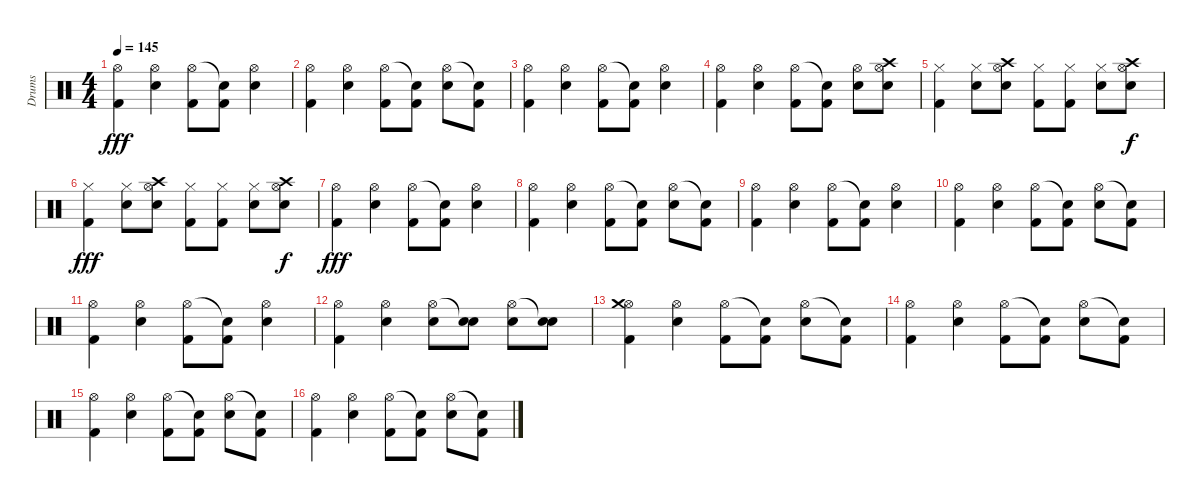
\track ("Drums" "Drums") {instrument percussion}
\staff {score}
\articulation defaults
\ts (4 4)
\tempo 145
\clef neutral
\ks c
("Hi-Hat (open)" "Kick (hit) 2").4{dy fff} ("Hi-Hat (open)" "Electric Snare (hit)").4 ("Hi-Hat (open)" "Kick (hit) 2").8 ("Snare (hit)"{t} "Kick (hit) 2").8 ("Hi-Hat (open)" "Electric Snare (hit)").4 |
("Hi-Hat (open)" "Kick (hit) 2").4 ("Hi-Hat (open)" "Electric Snare (hit)").4 ("Hi-Hat (open)" "Kick (hit) 2").8 ("Snare (hit)"{t} "Kick (hit) 2").8 ("Hi-Hat (open)" "Electric Snare (hit)").8 ("Snare (hit)"{t} "Kick (hit) 2").8 |
("Hi-Hat (open)" "Kick (hit) 2").4 ("Hi-Hat (open)" "Electric Snare (hit)").4 ("Hi-Hat (open)" "Kick (hit) 2").8 ("Snare (hit)"{t} "Kick (hit) 2").8 ("Hi-Hat (open)" "Electric Snare (hit)").4 |
("Hi-Hat (open)" "Kick (hit) 2").4 ("Hi-Hat (open)" "Electric Snare (hit)").4 ("Hi-Hat (open)" "Kick (hit) 2").8 ("Snare (hit)"{t} "Kick (hit) 2").8 ("Hi-Hat (open)" "Electric Snare (hit)").8 ("Hi-Hat (open)" "Electric Snare (hit)" "Crash high (hit)").8 |
("Hi-Hat (closed)" "Kick (hit) 2").4 ("Hi-Hat (closed)" "Electric Snare (hit)").8 ("Hi-Hat (open)" "Electric Snare (hit)" "Crash high (hit)").8 ("Hi-Hat (closed)" "Kick (hit) 2").8 ("Hi-Hat (closed)" "Kick (hit) 2").8 ("Hi-Hat (closed)" "Electric Snare (hit)").8 ("Hi-Hat (open)" "Electric Snare (hit)" "Crash high (hit)").8{dy f} |
("Hi-Hat (closed)" "Kick (hit) 2").4{dy fff} ("Hi-Hat (closed)" "Electric Snare (hit)").8 ("Hi-Hat (open)" "Electric Snare (hit)" "Crash high (hit)").8 ("Hi-Hat (closed)" "Kick (hit) 2").8 ("Hi-Hat (closed)" "Kick (hit) 2").8 ("Hi-Hat (closed)" "Electric Snare (hit)").8 ("Hi-Hat (open)" "Electric Snare (hit)" "Crash high (hit)").8{dy f} |
("Hi-Hat (open)" "Kick (hit) 2").4{dy fff} ("Hi-Hat (open)" "Electric Snare (hit)").4 ("Hi-Hat (open)" "Kick (hit) 2").8 ("Snare (hit)"{t} "Kick (hit) 2").8 ("Hi-Hat (open)" "Electric Snare (hit)").4 |
("Hi-Hat (open)" "Kick (hit) 2").4 ("Hi-Hat (open)" "Electric Snare (hit)").4 ("Hi-Hat (open)" "Kick (hit) 2").8 ("Snare (hit)"{t} "Kick (hit) 2").8 ("Hi-Hat (open)" "Electric Snare (hit)").8 ("Snare (hit)"{t} "Kick (hit) 2").8 |
("Hi-Hat (open)" "Kick (hit) 2").4 ("Hi-Hat (open)" "Electric Snare (hit)").4 ("Hi-Hat (open)" "Kick (hit) 2").8 ("Snare (hit)"{t} "Kick (hit) 2").8 ("Hi-Hat (open)" "Electric Snare (hit)").4 |
("Hi-Hat (open)" "Kick (hit) 2").4 ("Hi-Hat (open)" "Electric Snare (hit)").4 ("Hi-Hat (open)" "Kick (hit) 2").8 ("Snare (hit)"{t} "Kick (hit) 2").8 ("Hi-Hat (open)" "Electric Snare (hit)").8 ("Snare (hit)"{t} "Kick (hit) 2").8 |
("Hi-Hat (open)" "Kick (hit) 2").4 ("Hi-Hat (open)" "Electric Snare (hit)").4 ("Hi-Hat (open)" "Kick (hit) 2").8 ("Snare (hit)"{t} "Kick (hit) 2").8 ("Hi-Hat (open)" "Electric Snare (hit)").4 |
("Hi-Hat (open)" "Kick (hit) 2").4 ("Hi-Hat (open)" "Electric Snare (hit)").4 ("Hi-Hat (open)" "Electric Snare (hit)").8 ("Snare (hit)"{t} "Electric Snare (hit)").8 ("Hi-Hat (open)" "Electric Snare (hit)").8 ("Snare (hit)"{t} "Electric Snare (hit)").8 |
("Hi-Hat (open)" "Kick (hit) 2" "Crash medium (hit)").4 ("Hi-Hat (open)" "Electric Snare (hit)").4 ("Hi-Hat (open)" "Kick (hit) 2").8 ("Snare (hit)"{t} "Kick (hit) 2").8 ("Hi-Hat (open)" "Electric Snare (hit)").8 ("Snare (hit)"{t} "Kick (hit) 2").8 |
("Hi-Hat (open)" "Kick (hit) 2").4 ("Hi-Hat (open)" "Electric Snare (hit)").4 ("Hi-Hat (open)" "Kick (hit) 2").8 ("Snare (hit)"{t} "Kick (hit) 2").8 ("Hi-Hat (open)" "Electric Snare (hit)").8 ("Snare (hit)"{t} "Kick (hit) 2").8 |
("Hi-Hat (open)" "Kick (hit) 2").4 ("Hi-Hat (open)" "Electric Snare (hit)").4 ("Hi-Hat (open)" "Kick (hit) 2").8 ("Snare (hit)"{t} "Kick (hit) 2").8 ("Hi-Hat (open)" "Electric Snare (hit)").8 ("Snare (hit)"{t} "Kick (hit) 2").8 |
("Hi-Hat (open)" "Kick (hit) 2").4 ("Hi-Hat (open)" "Electric Snare (hit)").4 ("Hi-Hat (open)" "Kick (hit) 2").8 ("Snare (hit)"{t} "Kick (hit) 2").8 ("Hi-Hat (open)" "Electric Snare (hit)").8 ("Snare (hit)"{t} "Kick (hit) 2").8
